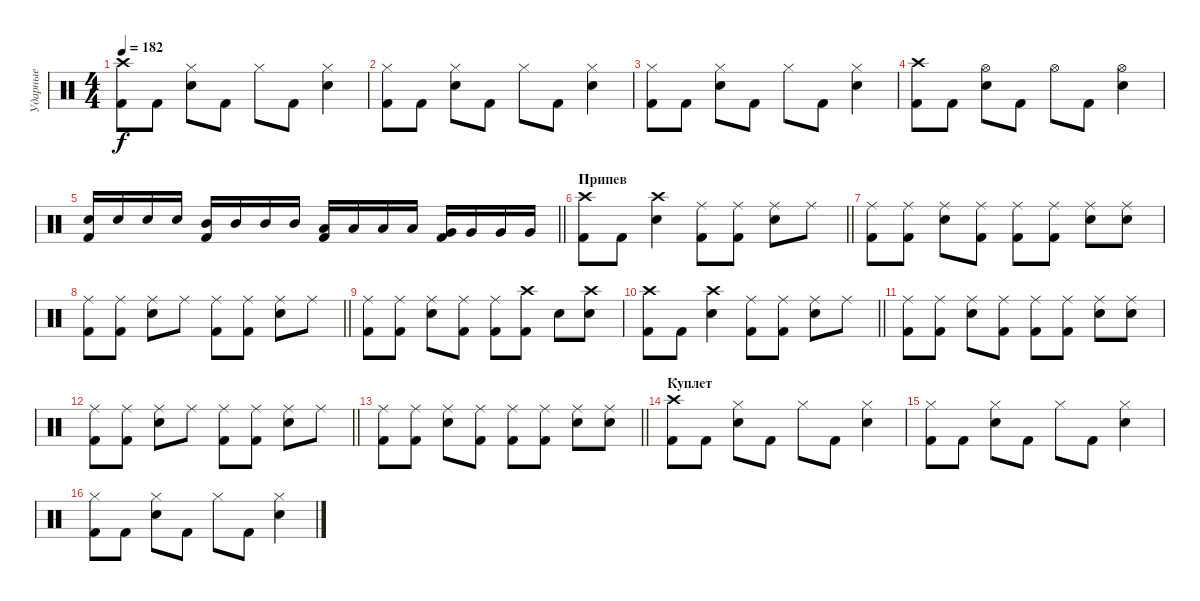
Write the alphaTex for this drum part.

\track ("Ударные" "Ударные") {instrument percussion}
\staff {score}
\articulation defaults
\ts (4 4)
\tempo 182
\clef neutral
\ks c
("Crash high (hit)" "Kick (hit) 2").8{dy f} "Kick (hit) 2".8 ("Hi-Hat (closed)" "Snare (hit) 2").8 "Kick (hit) 2".8 "Hi-Hat (closed)".8 "Kick (hit) 2".8 ("Hi-Hat (closed)" "Snare (hit) 2").4 |
("Hi-Hat (closed)" "Kick (hit) 2").8 "Kick (hit) 2".8 ("Hi-Hat (closed)" "Snare (hit) 2").8 "Kick (hit) 2".8 "Hi-Hat (closed)".8 "Kick (hit) 2".8 ("Hi-Hat (closed)" "Snare (hit) 2").4 |
("Hi-Hat (closed)" "Kick (hit) 2").8 "Kick (hit) 2".8 ("Hi-Hat (closed)" "Snare (hit) 2").8 "Kick (hit) 2".8 "Hi-Hat (closed)".8 "Kick (hit) 2".8 ("Hi-Hat (closed)" "Snare (hit) 2").4 |
("Crash high (hit)" "Kick (hit) 2").8 "Kick (hit) 2".8 ("Hi-Hat (open)" "Snare (hit) 2").8 "Kick (hit) 2".8 "Hi-Hat (open)".8 "Kick (hit) 2".8 ("Hi-Hat (open)" "Snare (hit) 2").4 |
\barLineRight lightlight
("Snare (hit) 2" "Kick (hit) 2").16 "Snare (hit) 2".16 "Snare (hit) 2".16 "Snare (hit) 2".16 ("Mid Tom (hit)" "Kick (hit) 2").16 "Mid Tom (hit)".16 "Mid Tom (hit)".16 "Mid Tom (hit)".16 ("Low Tom (hit)" "Kick (hit) 2").16 "Low Tom (hit)".16 "Low Tom (hit)".16 "Low Tom (hit)".16 ("Very Low Tom (hit)" "Kick (hit) 2").16 "Very Low Tom (hit)".16 "Very Low Tom (hit)".16 "Very Low Tom (hit)".16 |
\section ("" "Припев")
\barLineRight lightlight
("Crash high (hit)" "Kick (hit) 2").8 "Kick (hit) 2".8 ("Crash high (hit)" "Snare (hit) 2").4 ("Ride (middle)" "Kick (hit) 2").8 ("Ride (middle)" "Kick (hit) 2").8 ("Ride (middle)" "Snare (hit) 2").8 "Ride (middle)".8 |
("Ride (middle)" "Kick (hit) 2").8 ("Ride (middle)" "Kick (hit) 2").8 ("Ride (middle)" "Snare (hit) 2").8 ("Ride (middle)" "Kick (hit) 2").8 ("Ride (middle)" "Kick (hit) 2").8 ("Ride (middle)" "Kick (hit) 2").8 ("Ride (middle)" "Snare (hit) 2").8 ("Ride (middle)" "Snare (hit) 2").8 |
\barLineRight lightlight
("Ride (middle)" "Kick (hit) 2").8 ("Ride (middle)" "Kick (hit) 2").8 ("Ride (middle)" "Snare (hit) 2").8 "Ride (middle)".8 ("Ride (middle)" "Kick (hit) 2").8 ("Ride (middle)" "Kick (hit) 2").8 ("Ride (middle)" "Snare (hit) 2").8 "Ride (middle)".8 |
("Ride (middle)" "Kick (hit) 2").8 ("Ride (middle)" "Kick (hit) 2").8 ("Ride (middle)" "Snare (hit) 2").8 ("Ride (middle)" "Kick (hit) 2").8 ("Ride (middle)" "Kick (hit) 2").8 ("Crash high (hit)" "Kick (hit) 2").8 "Snare (hit) 2".8 ("Crash high (hit)" "Snare (hit) 2").8 |
\barLineRight lightlight
("Crash high (hit)" "Kick (hit) 2").8 "Kick (hit) 2".8 ("Crash high (hit)" "Snare (hit) 2").4 ("Ride (middle)" "Kick (hit) 2").8 ("Ride (middle)" "Kick (hit) 2").8 ("Ride (middle)" "Snare (hit) 2").8 "Ride (middle)".8 |
("Ride (middle)" "Kick (hit) 2").8 ("Ride (middle)" "Kick (hit) 2").8 ("Ride (middle)" "Snare (hit) 2").8 ("Ride (middle)" "Kick (hit) 2").8 ("Ride (middle)" "Kick (hit) 2").8 ("Ride (middle)" "Kick (hit) 2").8 ("Ride (middle)" "Snare (hit) 2").8 ("Ride (middle)" "Snare (hit) 2").8 |
\barLineRight lightlight
("Ride (middle)" "Kick (hit) 2").8 ("Ride (middle)" "Kick (hit) 2").8 ("Ride (middle)" "Snare (hit) 2").8 "Ride (middle)".8 ("Ride (middle)" "Kick (hit) 2").8 ("Ride (middle)" "Kick (hit) 2").8 ("Ride (middle)" "Snare (hit) 2").8 "Ride (middle)".8 |
\barLineRight lightlight
("Ride (middle)" "Kick (hit) 2").8 ("Ride (middle)" "Kick (hit) 2").8 ("Ride (middle)" "Snare (hit) 2").8 ("Ride (middle)" "Kick (hit) 2").8 ("Ride (middle)" "Kick (hit) 2").8 ("Ride (middle)" "Kick (hit) 2").8 ("Ride (middle)" "Snare (hit) 2").8 ("Ride (middle)" "Snare (hit) 2").8 |
\section ("" "Куплет")
("Crash high (hit)" "Kick (hit) 2").8 "Kick (hit) 2".8 ("Hi-Hat (closed)" "Snare (hit) 2").8 "Kick (hit) 2".8 "Hi-Hat (closed)".8 "Kick (hit) 2".8 ("Hi-Hat (closed)" "Snare (hit) 2").4 |
("Hi-Hat (closed)" "Kick (hit) 2").8 "Kick (hit) 2".8 ("Hi-Hat (closed)" "Snare (hit) 2").8 "Kick (hit) 2".8 "Hi-Hat (closed)".8 "Kick (hit) 2".8 ("Hi-Hat (closed)" "Snare (hit) 2").4 |
("Hi-Hat (closed)" "Kick (hit) 2").8 "Kick (hit) 2".8 ("Hi-Hat (closed)" "Snare (hit) 2").8 "Kick (hit) 2".8 "Hi-Hat (closed)".8 "Kick (hit) 2".8 ("Hi-Hat (closed)" "Snare (hit) 2").4
